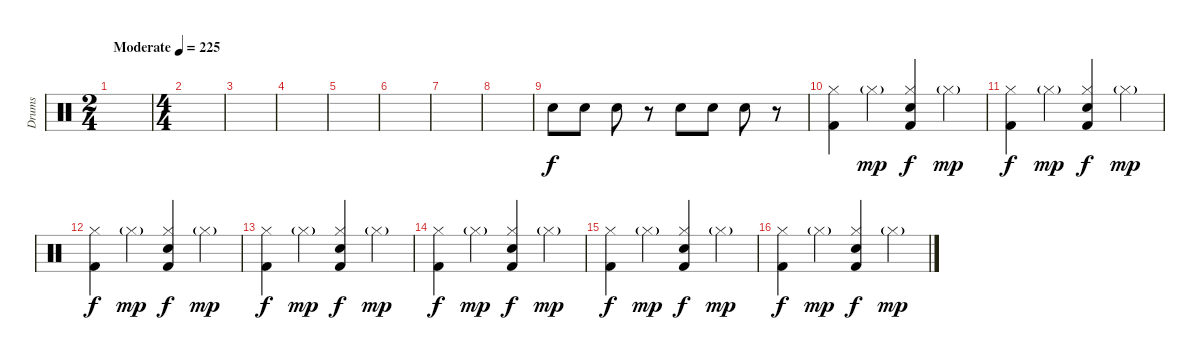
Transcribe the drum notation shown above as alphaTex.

\track ("Drums" "Drums") {instrument percussion}
\staff {score}
\articulation defaults
\ts (2 4)
\tempo (225 "Moderate")
\clef neutral
\ks c
|
\ts (4 4)
|
|
|
|
|
|
|
"Snare (hit) 2".8 "Snare (hit) 2".8 "Snare (hit) 2".8 r.8 "Snare (hit) 2".8 "Snare (hit) 2".8 "Snare (hit) 2".8 r.8 |
("Hi-Hat (closed)" "Kick (hit) 2").4 "Hi-Hat (closed)"{g}.4{dy mp} ("Hi-Hat (closed)" "Snare (hit) 2" "Kick (hit) 2").4{dy f} "Hi-Hat (closed)"{g}.4{dy mp} |
("Hi-Hat (closed)" "Kick (hit) 2").4{dy f} "Hi-Hat (closed)"{g}.4{dy mp} ("Hi-Hat (closed)" "Snare (hit) 2" "Kick (hit) 2").4{dy f} "Hi-Hat (closed)"{g}.4{dy mp} |
("Hi-Hat (closed)" "Kick (hit) 2").4{dy f} "Hi-Hat (closed)"{g}.4{dy mp} ("Hi-Hat (closed)" "Snare (hit) 2" "Kick (hit) 2").4{dy f} "Hi-Hat (closed)"{g}.4{dy mp} |
("Hi-Hat (closed)" "Kick (hit) 2").4{dy f} "Hi-Hat (closed)"{g}.4{dy mp} ("Hi-Hat (closed)" "Snare (hit) 2" "Kick (hit) 2").4{dy f} "Hi-Hat (closed)"{g}.4{dy mp} |
("Hi-Hat (closed)" "Kick (hit) 2").4{dy f} "Hi-Hat (closed)"{g}.4{dy mp} ("Hi-Hat (closed)" "Snare (hit) 2" "Kick (hit) 2").4{dy f} "Hi-Hat (closed)"{g}.4{dy mp} |
("Hi-Hat (closed)" "Kick (hit) 2").4{dy f} "Hi-Hat (closed)"{g}.4{dy mp} ("Hi-Hat (closed)" "Snare (hit) 2" "Kick (hit) 2").4{dy f} "Hi-Hat (closed)"{g}.4{dy mp} |
("Hi-Hat (closed)" "Kick (hit) 2").4{dy f} "Hi-Hat (closed)"{g}.4{dy mp} ("Hi-Hat (closed)" "Snare (hit) 2" "Kick (hit) 2").4{dy f} "Hi-Hat (closed)"{g}.4{dy mp}
